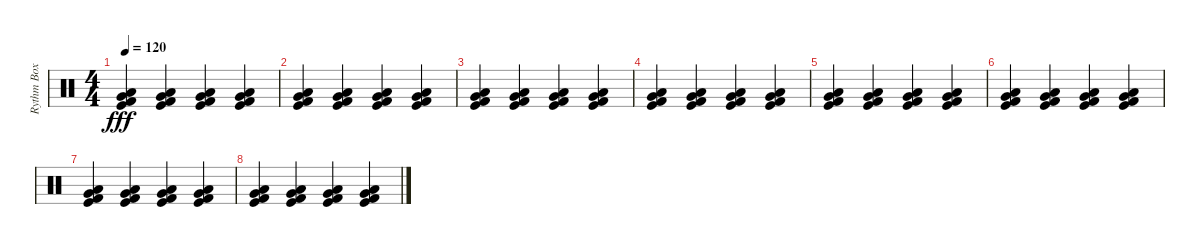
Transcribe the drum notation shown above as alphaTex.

\track ("Rythm Box" "Rythm Box") {instrument percussion}
\staff {score}
\articulation defaults
\ts (4 4)
\tempo 120
\clef neutral
\ks c
("Low Floor Tom (hit)" "Very Low Tom (hit)" "Kick (hit) 2" "Kick (hit)").4{dy fff} ("Low Floor Tom (hit)" "Very Low Tom (hit)" "Kick (hit) 2" "Kick (hit)").4 ("Low Floor Tom (hit)" "Very Low Tom (hit)" "Kick (hit) 2" "Kick (hit)").4 ("Low Floor Tom (hit)" "Very Low Tom (hit)" "Kick (hit) 2" "Kick (hit)").4 |
("Low Floor Tom (hit)" "Very Low Tom (hit)" "Kick (hit) 2" "Kick (hit)").4 ("Low Floor Tom (hit)" "Very Low Tom (hit)" "Kick (hit) 2" "Kick (hit)").4 ("Low Floor Tom (hit)" "Very Low Tom (hit)" "Kick (hit) 2" "Kick (hit)").4 ("Low Floor Tom (hit)" "Very Low Tom (hit)" "Kick (hit) 2" "Kick (hit)").4 |
("Low Floor Tom (hit)" "Very Low Tom (hit)" "Kick (hit) 2" "Kick (hit)").4 ("Low Floor Tom (hit)" "Very Low Tom (hit)" "Kick (hit) 2" "Kick (hit)").4 ("Low Floor Tom (hit)" "Very Low Tom (hit)" "Kick (hit) 2" "Kick (hit)").4 ("Low Floor Tom (hit)" "Very Low Tom (hit)" "Kick (hit) 2" "Kick (hit)").4 |
("Low Floor Tom (hit)" "Very Low Tom (hit)" "Kick (hit) 2" "Kick (hit)").4 ("Low Floor Tom (hit)" "Very Low Tom (hit)" "Kick (hit) 2" "Kick (hit)").4 ("Low Floor Tom (hit)" "Very Low Tom (hit)" "Kick (hit) 2" "Kick (hit)").4 ("Low Floor Tom (hit)" "Very Low Tom (hit)" "Kick (hit) 2" "Kick (hit)").4 |
("Low Floor Tom (hit)" "Very Low Tom (hit)" "Kick (hit) 2" "Kick (hit)").4 ("Low Floor Tom (hit)" "Very Low Tom (hit)" "Kick (hit) 2" "Kick (hit)").4 ("Low Floor Tom (hit)" "Very Low Tom (hit)" "Kick (hit) 2" "Kick (hit)").4 ("Low Floor Tom (hit)" "Very Low Tom (hit)" "Kick (hit) 2" "Kick (hit)").4 |
("Low Floor Tom (hit)" "Very Low Tom (hit)" "Kick (hit) 2" "Kick (hit)").4 ("Low Floor Tom (hit)" "Very Low Tom (hit)" "Kick (hit) 2" "Kick (hit)").4 ("Low Floor Tom (hit)" "Very Low Tom (hit)" "Kick (hit) 2" "Kick (hit)").4 ("Low Floor Tom (hit)" "Very Low Tom (hit)" "Kick (hit) 2" "Kick (hit)").4 |
("Low Floor Tom (hit)" "Very Low Tom (hit)" "Kick (hit) 2" "Kick (hit)").4 ("Low Floor Tom (hit)" "Very Low Tom (hit)" "Kick (hit) 2" "Kick (hit)").4 ("Low Floor Tom (hit)" "Very Low Tom (hit)" "Kick (hit) 2" "Kick (hit)").4 ("Low Floor Tom (hit)" "Very Low Tom (hit)" "Kick (hit) 2" "Kick (hit)").4 |
("Low Floor Tom (hit)" "Very Low Tom (hit)" "Kick (hit) 2" "Kick (hit)").4 ("Low Floor Tom (hit)" "Very Low Tom (hit)" "Kick (hit) 2" "Kick (hit)").4 ("Low Floor Tom (hit)" "Very Low Tom (hit)" "Kick (hit) 2" "Kick (hit)").4 ("Low Floor Tom (hit)" "Very Low Tom (hit)" "Kick (hit) 2" "Kick (hit)").4
